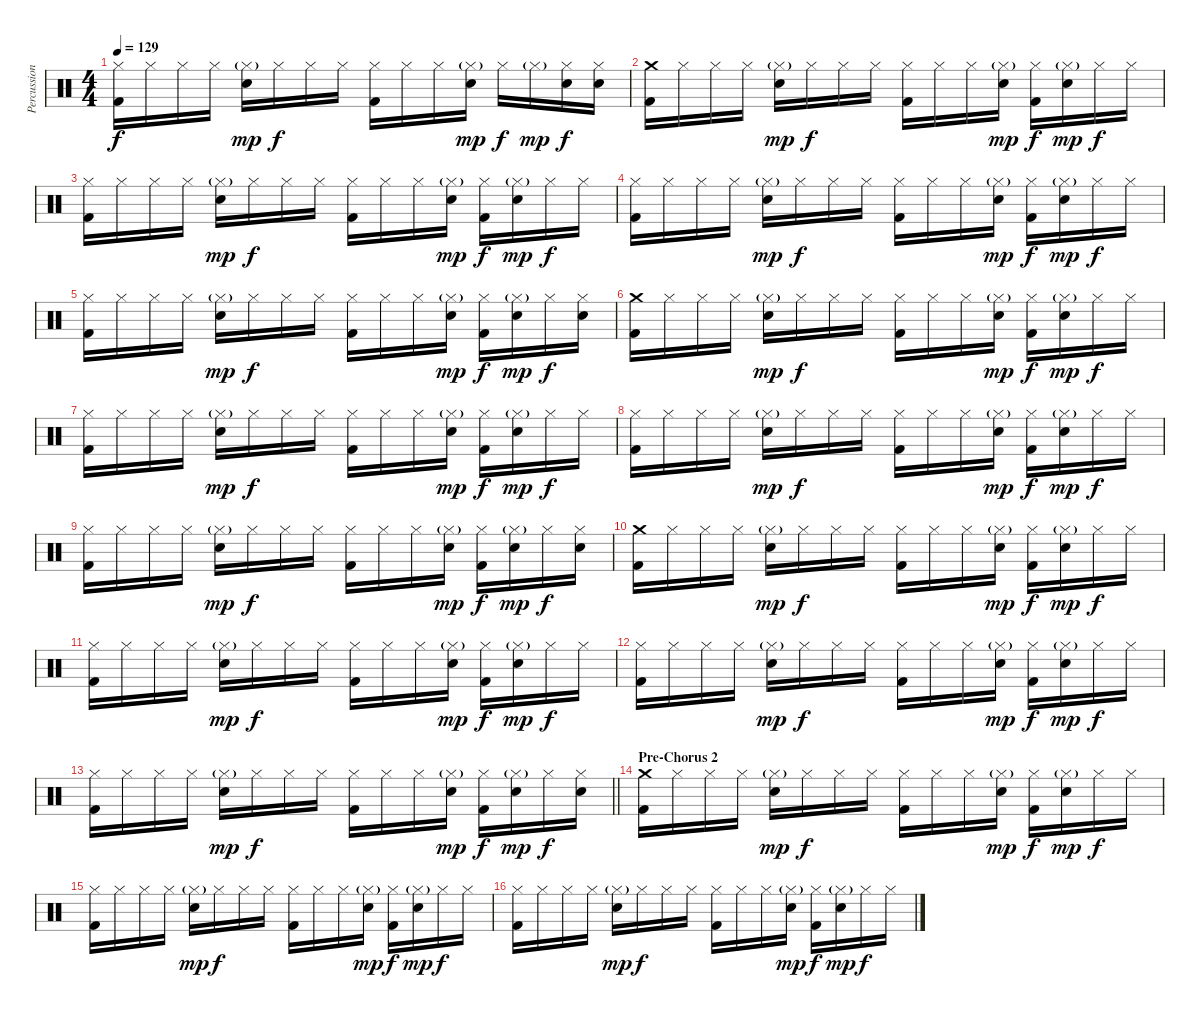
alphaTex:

\track ("Percussion" "Percussion") {instrument percussion}
\staff {score}
\articulation defaults
\ts (4 4)
\tempo 129
\clef neutral
\ks c
("Hi-Hat (closed)" "Kick (hit) 2").16{dy f} "Hi-Hat (closed)".16 "Hi-Hat (closed)".16 "Hi-Hat (closed)".16 ("Hi-Hat (closed)"{g} "Electric Snare (hit)").16{dy mp} "Hi-Hat (closed)".16{dy f} "Hi-Hat (closed)".16 "Hi-Hat (closed)".16 ("Hi-Hat (closed)" "Kick (hit) 2").16 "Hi-Hat (closed)".16 "Hi-Hat (closed)".16 ("Hi-Hat (closed)"{g} "Electric Snare (hit)").16{dy mp} "Hi-Hat (closed)".16{dy f} "Hi-Hat (closed)"{g}.16{dy mp} ("Hi-Hat (closed)" "Electric Snare (hit)").16{dy f} ("Hi-Hat (closed)" "Electric Snare (hit)").16 |
("Crash medium (hit)" "Kick (hit) 2").16 "Hi-Hat (closed)".16 "Hi-Hat (closed)".16 "Hi-Hat (closed)".16 ("Hi-Hat (closed)"{g} "Electric Snare (hit)").16{dy mp} "Hi-Hat (closed)".16{dy f} "Hi-Hat (closed)".16 "Hi-Hat (closed)".16 ("Hi-Hat (closed)" "Kick (hit) 2").16 "Hi-Hat (closed)".16 "Hi-Hat (closed)".16 ("Hi-Hat (closed)"{g} "Electric Snare (hit)").16{dy mp} ("Hi-Hat (closed)" "Kick (hit) 2").16{dy f} ("Hi-Hat (closed)"{g} "Electric Snare (hit)").16{dy mp} "Hi-Hat (closed)".16{dy f} "Hi-Hat (closed)".16 |
("Hi-Hat (closed)" "Kick (hit) 2").16 "Hi-Hat (closed)".16 "Hi-Hat (closed)".16 "Hi-Hat (closed)".16 ("Hi-Hat (closed)"{g} "Electric Snare (hit)").16{dy mp} "Hi-Hat (closed)".16{dy f} "Hi-Hat (closed)".16 "Hi-Hat (closed)".16 ("Hi-Hat (closed)" "Kick (hit) 2").16 "Hi-Hat (closed)".16 "Hi-Hat (closed)".16 ("Hi-Hat (closed)"{g} "Electric Snare (hit)").16{dy mp} ("Hi-Hat (closed)" "Kick (hit) 2").16{dy f} ("Hi-Hat (closed)"{g} "Electric Snare (hit)").16{dy mp} "Hi-Hat (closed)".16{dy f} "Hi-Hat (closed)".16 |
("Hi-Hat (closed)" "Kick (hit) 2").16 "Hi-Hat (closed)".16 "Hi-Hat (closed)".16 "Hi-Hat (closed)".16 ("Hi-Hat (closed)"{g} "Electric Snare (hit)").16{dy mp} "Hi-Hat (closed)".16{dy f} "Hi-Hat (closed)".16 "Hi-Hat (closed)".16 ("Hi-Hat (closed)" "Kick (hit) 2").16 "Hi-Hat (closed)".16 "Hi-Hat (closed)".16 ("Hi-Hat (closed)"{g} "Electric Snare (hit)").16{dy mp} ("Hi-Hat (closed)" "Kick (hit) 2").16{dy f} ("Hi-Hat (closed)"{g} "Electric Snare (hit)").16{dy mp} "Hi-Hat (closed)".16{dy f} "Hi-Hat (closed)".16 |
("Hi-Hat (closed)" "Kick (hit) 2").16 "Hi-Hat (closed)".16 "Hi-Hat (closed)".16 "Hi-Hat (closed)".16 ("Hi-Hat (closed)"{g} "Electric Snare (hit)").16{dy mp} "Hi-Hat (closed)".16{dy f} "Hi-Hat (closed)".16 "Hi-Hat (closed)".16 ("Hi-Hat (closed)" "Kick (hit) 2").16 "Hi-Hat (closed)".16 "Hi-Hat (closed)".16 ("Hi-Hat (closed)"{g} "Electric Snare (hit)").16{dy mp} ("Hi-Hat (closed)" "Kick (hit) 2").16{dy f} ("Hi-Hat (closed)"{g} "Electric Snare (hit)").16{dy mp} "Hi-Hat (closed)".16{dy f} ("Hi-Hat (closed)" "Electric Snare (hit)").16 |
("Crash medium (hit)" "Kick (hit) 2").16 "Hi-Hat (closed)".16 "Hi-Hat (closed)".16 "Hi-Hat (closed)".16 ("Hi-Hat (closed)"{g} "Electric Snare (hit)").16{dy mp} "Hi-Hat (closed)".16{dy f} "Hi-Hat (closed)".16 "Hi-Hat (closed)".16 ("Hi-Hat (closed)" "Kick (hit) 2").16 "Hi-Hat (closed)".16 "Hi-Hat (closed)".16 ("Hi-Hat (closed)"{g} "Electric Snare (hit)").16{dy mp} ("Hi-Hat (closed)" "Kick (hit) 2").16{dy f} ("Hi-Hat (closed)"{g} "Electric Snare (hit)").16{dy mp} "Hi-Hat (closed)".16{dy f} "Hi-Hat (closed)".16 |
("Hi-Hat (closed)" "Kick (hit) 2").16 "Hi-Hat (closed)".16 "Hi-Hat (closed)".16 "Hi-Hat (closed)".16 ("Hi-Hat (closed)"{g} "Electric Snare (hit)").16{dy mp} "Hi-Hat (closed)".16{dy f} "Hi-Hat (closed)".16 "Hi-Hat (closed)".16 ("Hi-Hat (closed)" "Kick (hit) 2").16 "Hi-Hat (closed)".16 "Hi-Hat (closed)".16 ("Hi-Hat (closed)"{g} "Electric Snare (hit)").16{dy mp} ("Hi-Hat (closed)" "Kick (hit) 2").16{dy f} ("Hi-Hat (closed)"{g} "Electric Snare (hit)").16{dy mp} "Hi-Hat (closed)".16{dy f} "Hi-Hat (closed)".16 |
("Hi-Hat (closed)" "Kick (hit) 2").16 "Hi-Hat (closed)".16 "Hi-Hat (closed)".16 "Hi-Hat (closed)".16 ("Hi-Hat (closed)"{g} "Electric Snare (hit)").16{dy mp} "Hi-Hat (closed)".16{dy f} "Hi-Hat (closed)".16 "Hi-Hat (closed)".16 ("Hi-Hat (closed)" "Kick (hit) 2").16 "Hi-Hat (closed)".16 "Hi-Hat (closed)".16 ("Hi-Hat (closed)"{g} "Electric Snare (hit)").16{dy mp} ("Hi-Hat (closed)" "Kick (hit) 2").16{dy f} ("Hi-Hat (closed)"{g} "Electric Snare (hit)").16{dy mp} "Hi-Hat (closed)".16{dy f} "Hi-Hat (closed)".16 |
("Hi-Hat (closed)" "Kick (hit) 2").16 "Hi-Hat (closed)".16 "Hi-Hat (closed)".16 "Hi-Hat (closed)".16 ("Hi-Hat (closed)"{g} "Electric Snare (hit)").16{dy mp} "Hi-Hat (closed)".16{dy f} "Hi-Hat (closed)".16 "Hi-Hat (closed)".16 ("Hi-Hat (closed)" "Kick (hit) 2").16 "Hi-Hat (closed)".16 "Hi-Hat (closed)".16 ("Hi-Hat (closed)"{g} "Electric Snare (hit)").16{dy mp} ("Hi-Hat (closed)" "Kick (hit) 2").16{dy f} ("Hi-Hat (closed)"{g} "Electric Snare (hit)").16{dy mp} "Hi-Hat (closed)".16{dy f} ("Hi-Hat (closed)" "Electric Snare (hit)").16 |
("Crash medium (hit)" "Kick (hit) 2").16 "Hi-Hat (closed)".16 "Hi-Hat (closed)".16 "Hi-Hat (closed)".16 ("Hi-Hat (closed)"{g} "Electric Snare (hit)").16{dy mp} "Hi-Hat (closed)".16{dy f} "Hi-Hat (closed)".16 "Hi-Hat (closed)".16 ("Hi-Hat (closed)" "Kick (hit) 2").16 "Hi-Hat (closed)".16 "Hi-Hat (closed)".16 ("Hi-Hat (closed)"{g} "Electric Snare (hit)").16{dy mp} ("Hi-Hat (closed)" "Kick (hit) 2").16{dy f} ("Hi-Hat (closed)"{g} "Electric Snare (hit)").16{dy mp} "Hi-Hat (closed)".16{dy f} "Hi-Hat (closed)".16 |
("Hi-Hat (closed)" "Kick (hit) 2").16 "Hi-Hat (closed)".16 "Hi-Hat (closed)".16 "Hi-Hat (closed)".16 ("Hi-Hat (closed)"{g} "Electric Snare (hit)").16{dy mp} "Hi-Hat (closed)".16{dy f} "Hi-Hat (closed)".16 "Hi-Hat (closed)".16 ("Hi-Hat (closed)" "Kick (hit) 2").16 "Hi-Hat (closed)".16 "Hi-Hat (closed)".16 ("Hi-Hat (closed)"{g} "Electric Snare (hit)").16{dy mp} ("Hi-Hat (closed)" "Kick (hit) 2").16{dy f} ("Hi-Hat (closed)"{g} "Electric Snare (hit)").16{dy mp} "Hi-Hat (closed)".16{dy f} "Hi-Hat (closed)".16 |
("Hi-Hat (closed)" "Kick (hit) 2").16 "Hi-Hat (closed)".16 "Hi-Hat (closed)".16 "Hi-Hat (closed)".16 ("Hi-Hat (closed)"{g} "Electric Snare (hit)").16{dy mp} "Hi-Hat (closed)".16{dy f} "Hi-Hat (closed)".16 "Hi-Hat (closed)".16 ("Hi-Hat (closed)" "Kick (hit) 2").16 "Hi-Hat (closed)".16 "Hi-Hat (closed)".16 ("Hi-Hat (closed)"{g} "Electric Snare (hit)").16{dy mp} ("Hi-Hat (closed)" "Kick (hit) 2").16{dy f} ("Hi-Hat (closed)"{g} "Electric Snare (hit)").16{dy mp} "Hi-Hat (closed)".16{dy f} "Hi-Hat (closed)".16 |
\barLineRight lightlight
("Hi-Hat (closed)" "Kick (hit) 2").16 "Hi-Hat (closed)".16 "Hi-Hat (closed)".16 "Hi-Hat (closed)".16 ("Hi-Hat (closed)"{g} "Electric Snare (hit)").16{dy mp} "Hi-Hat (closed)".16{dy f} "Hi-Hat (closed)".16 "Hi-Hat (closed)".16 ("Hi-Hat (closed)" "Kick (hit) 2").16 "Hi-Hat (closed)".16 "Hi-Hat (closed)".16 ("Hi-Hat (closed)"{g} "Electric Snare (hit)").16{dy mp} ("Hi-Hat (closed)" "Kick (hit) 2").16{dy f} ("Hi-Hat (closed)"{g} "Electric Snare (hit)").16{dy mp} "Hi-Hat (closed)".16{dy f} ("Hi-Hat (closed)" "Electric Snare (hit)").16 |
\section ("" "Pre-Chorus 2")
("Crash medium (hit)" "Kick (hit) 2").16 "Hi-Hat (closed)".16 "Hi-Hat (closed)".16 "Hi-Hat (closed)".16 ("Hi-Hat (closed)"{g} "Electric Snare (hit)").16{dy mp} "Hi-Hat (closed)".16{dy f} "Hi-Hat (closed)".16 "Hi-Hat (closed)".16 ("Hi-Hat (closed)" "Kick (hit) 2").16 "Hi-Hat (closed)".16 "Hi-Hat (closed)".16 ("Hi-Hat (closed)"{g} "Electric Snare (hit)").16{dy mp} ("Hi-Hat (closed)" "Kick (hit) 2").16{dy f} ("Hi-Hat (closed)"{g} "Electric Snare (hit)").16{dy mp} "Hi-Hat (closed)".16{dy f} "Hi-Hat (closed)".16 |
("Hi-Hat (closed)" "Kick (hit) 2").16 "Hi-Hat (closed)".16 "Hi-Hat (closed)".16 "Hi-Hat (closed)".16 ("Hi-Hat (closed)"{g} "Electric Snare (hit)").16{dy mp} "Hi-Hat (closed)".16{dy f} "Hi-Hat (closed)".16 "Hi-Hat (closed)".16 ("Hi-Hat (closed)" "Kick (hit) 2").16 "Hi-Hat (closed)".16 "Hi-Hat (closed)".16 ("Hi-Hat (closed)"{g} "Electric Snare (hit)").16{dy mp} ("Hi-Hat (closed)" "Kick (hit) 2").16{dy f} ("Hi-Hat (closed)"{g} "Electric Snare (hit)").16{dy mp} "Hi-Hat (closed)".16{dy f} "Hi-Hat (closed)".16 |
("Hi-Hat (closed)" "Kick (hit) 2").16 "Hi-Hat (closed)".16 "Hi-Hat (closed)".16 "Hi-Hat (closed)".16 ("Hi-Hat (closed)"{g} "Electric Snare (hit)").16{dy mp} "Hi-Hat (closed)".16{dy f} "Hi-Hat (closed)".16 "Hi-Hat (closed)".16 ("Hi-Hat (closed)" "Kick (hit) 2").16 "Hi-Hat (closed)".16 "Hi-Hat (closed)".16 ("Hi-Hat (closed)"{g} "Electric Snare (hit)").16{dy mp} ("Hi-Hat (closed)" "Kick (hit) 2").16{dy f} ("Hi-Hat (closed)"{g} "Electric Snare (hit)").16{dy mp} "Hi-Hat (closed)".16{dy f} "Hi-Hat (closed)".16
